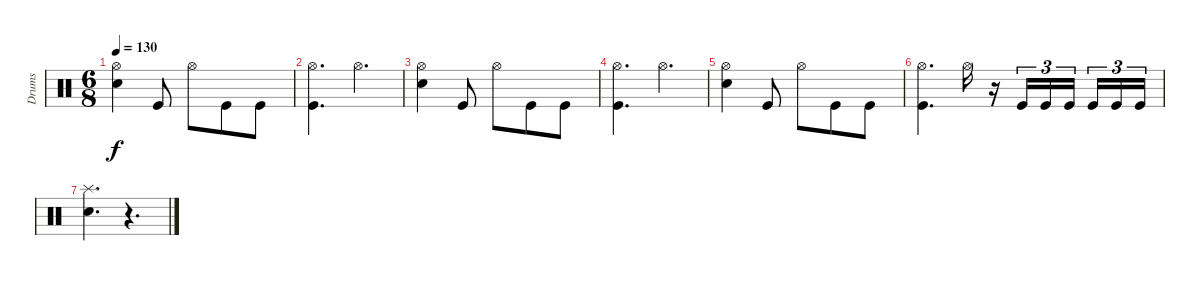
\track ("Drums" "Drums") {instrument percussion}
\staff {score}
\articulation defaults
\ts (6 8)
\tempo 130
\clef neutral
\ks c
("Snare (hit) 2" "Hi-Hat (open)").4{dy f} "Kick (hit)".8 "Hi-Hat (open)".8 "Kick (hit)".8 "Kick (hit)".8 |
("Kick (hit)" "Hi-Hat (open)").4{d} "Hi-Hat (open)".4{d} |
("Snare (hit) 2" "Hi-Hat (open)").4 "Kick (hit)".8 "Hi-Hat (open)".8 "Kick (hit)".8 "Kick (hit)".8 |
("Kick (hit)" "Hi-Hat (open)").4{d} "Hi-Hat (open)".4{d} |
("Snare (hit) 2" "Hi-Hat (open)").4 "Kick (hit)".8 "Hi-Hat (open)".8 "Kick (hit)".8 "Kick (hit)".8 |
("Kick (hit)" "Hi-Hat (open)").4{d} "Hi-Hat (open)".16 r.16 "Kick (hit)".16{tu (3 2)} "Kick (hit)".16{tu (3 2)} "Kick (hit)".16{tu (3 2) beam splitsecondary} "Kick (hit)".16{tu (3 2)} "Kick (hit)".16{tu (3 2)} "Kick (hit)".16{tu (3 2)} |
("Snare (hit) 2" "Splash (hit)").4{d} r.4{d}
